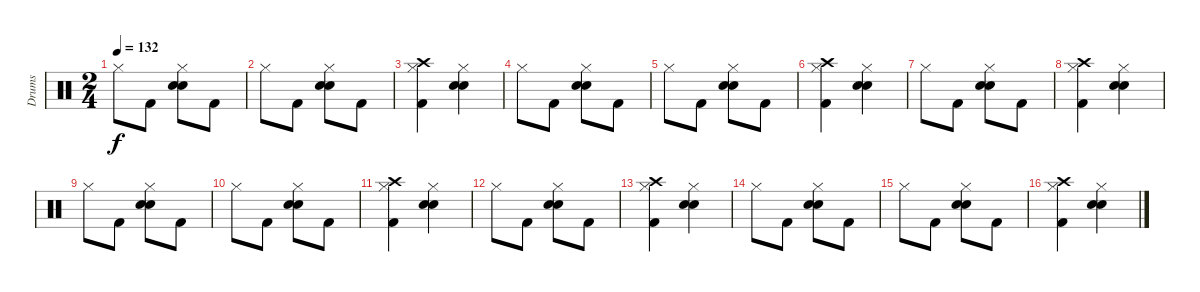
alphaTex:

\track ("Drums" "Drums") {instrument percussion}
\staff {score}
\articulation defaults
\ts (2 4)
\tempo 132
\clef neutral
\ks c "Hi-Hat (closed)".8{dy f} "Kick (hit) 2".8
("Electric Snare (hit)" "Electric Snare (hit)" "Hi-Hat (closed)").8 "Kick (hit) 2".8 |
"Hi-Hat (closed)".8 "Kick (hit) 2".8 ("Electric Snare (hit)" "Electric Snare (hit)" "Hi-Hat (closed)").8 "Kick (hit) 2".8 |
("Kick (hit) 2" "Crash high (hit)" "Hi-Hat (closed)").4 ("Electric Snare (hit)" "Electric Snare (hit)" "Hi-Hat (closed)").4 |
"Hi-Hat (closed)".8 "Kick (hit) 2".8 ("Electric Snare (hit)" "Electric Snare (hit)" "Hi-Hat (closed)").8 "Kick (hit) 2".8 |
"Hi-Hat (closed)".8 "Kick (hit) 2".8 ("Electric Snare (hit)" "Electric Snare (hit)" "Hi-Hat (closed)").8 "Kick (hit) 2".8 |
("Kick (hit) 2" "Crash high (hit)" "Hi-Hat (closed)").4 ("Electric Snare (hit)" "Electric Snare (hit)" "Hi-Hat (closed)").4 |
"Hi-Hat (closed)".8 "Kick (hit) 2".8 ("Electric Snare (hit)" "Electric Snare (hit)" "Hi-Hat (closed)").8 "Kick (hit) 2".8 |
("Kick (hit) 2" "Crash high (hit)" "Hi-Hat (closed)").4 ("Electric Snare (hit)" "Electric Snare (hit)" "Hi-Hat (closed)").4 |
"Hi-Hat (closed)".8 "Kick (hit) 2".8 ("Electric Snare (hit)" "Electric Snare (hit)" "Hi-Hat (closed)").8 "Kick (hit) 2".8 |
"Hi-Hat (closed)".8 "Kick (hit) 2".8 ("Electric Snare (hit)" "Electric Snare (hit)" "Hi-Hat (closed)").8 "Kick (hit) 2".8 |
("Kick (hit) 2" "Crash high (hit)" "Hi-Hat (closed)").4 ("Electric Snare (hit)" "Electric Snare (hit)" "Hi-Hat (closed)").4 |
"Hi-Hat (closed)".8 "Kick (hit) 2".8 ("Electric Snare (hit)" "Electric Snare (hit)" "Hi-Hat (closed)").8 "Kick (hit) 2".8 |
("Kick (hit) 2" "Crash high (hit)" "Hi-Hat (closed)").4 ("Electric Snare (hit)" "Electric Snare (hit)" "Hi-Hat (closed)").4 |
"Hi-Hat (closed)".8 "Kick (hit) 2".8 ("Electric Snare (hit)" "Electric Snare (hit)" "Hi-Hat (closed)").8 "Kick (hit) 2".8 |
"Hi-Hat (closed)".8 "Kick (hit) 2".8 ("Electric Snare (hit)" "Electric Snare (hit)" "Hi-Hat (closed)").8 "Kick (hit) 2".8 |
("Kick (hit) 2" "Crash high (hit)" "Hi-Hat (closed)").4 ("Electric Snare (hit)" "Electric Snare (hit)" "Hi-Hat (closed)").4
